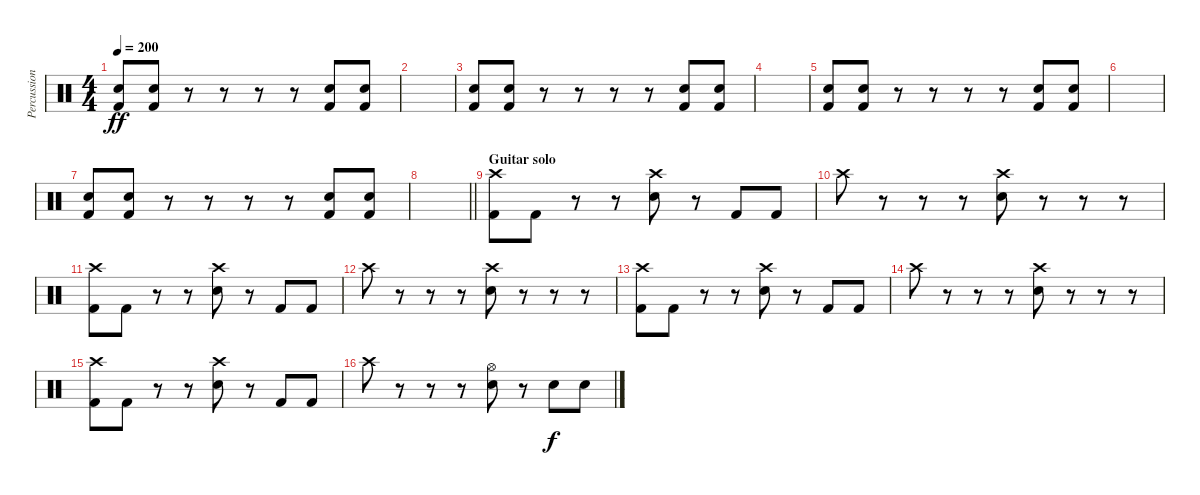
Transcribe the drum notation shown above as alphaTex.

\track ("Percussion" "Percussion") {instrument percussion}
\staff {score}
\articulation defaults
\ts (4 4)
\section ("" "")
\tempo 200
\clef neutral
\ks c
("Electric Snare (hit)" "Kick (hit) 2").8{dy ff} ("Electric Snare (hit)" "Kick (hit) 2").8 r.8 r.8 r.8 r.8 ("Electric Snare (hit)" "Kick (hit) 2").8 ("Electric Snare (hit)" "Kick (hit) 2").8 |
|
("Electric Snare (hit)" "Kick (hit) 2").8 ("Electric Snare (hit)" "Kick (hit) 2").8 r.8 r.8 r.8 r.8 ("Electric Snare (hit)" "Kick (hit) 2").8 ("Electric Snare (hit)" "Kick (hit) 2").8 |
|
("Electric Snare (hit)" "Kick (hit) 2").8 ("Electric Snare (hit)" "Kick (hit) 2").8 r.8 r.8 r.8 r.8 ("Electric Snare (hit)" "Kick (hit) 2").8 ("Electric Snare (hit)" "Kick (hit) 2").8 |
|
("Electric Snare (hit)" "Kick (hit) 2").8 ("Electric Snare (hit)" "Kick (hit) 2").8 r.8 r.8 r.8 r.8 ("Electric Snare (hit)" "Kick (hit) 2").8 ("Electric Snare (hit)" "Kick (hit) 2").8 |
\barLineRight lightlight
|
\section ("" "Guitar solo")
("Crash high (hit)" "Kick (hit) 2").8 "Kick (hit) 2".8 r.8 r.8 ("Crash high (hit)" "Electric Snare (hit)").8 r.8 "Kick (hit) 2".8 "Kick (hit) 2".8 |
"Crash high (hit)".8 r.8 r.8 r.8 ("Crash high (hit)" "Electric Snare (hit)").8 r.8 r.8 r.8 |
("Crash high (hit)" "Kick (hit) 2").8 "Kick (hit) 2".8 r.8 r.8 ("Crash high (hit)" "Electric Snare (hit)").8 r.8 "Kick (hit) 2".8 "Kick (hit) 2".8 |
"Crash high (hit)".8 r.8 r.8 r.8 ("Crash high (hit)" "Electric Snare (hit)").8 r.8 r.8 r.8 |
("Crash high (hit)" "Kick (hit) 2").8 "Kick (hit) 2".8 r.8 r.8 ("Crash high (hit)" "Electric Snare (hit)").8 r.8 "Kick (hit) 2".8 "Kick (hit) 2".8 |
"Crash high (hit)".8 r.8 r.8 r.8 ("Crash high (hit)" "Electric Snare (hit)").8 r.8 r.8 r.8 |
("Crash high (hit)" "Kick (hit) 2").8 "Kick (hit) 2".8 r.8 r.8 ("Crash high (hit)" "Electric Snare (hit)").8 r.8 "Kick (hit) 2".8 "Kick (hit) 2".8 |
"Crash high (hit)".8 r.8 r.8 r.8 ("Hi-Hat (open)" "Electric Snare (hit)").8 r.8 "Electric Snare (hit)".8{dy f} "Electric Snare (hit)".8
